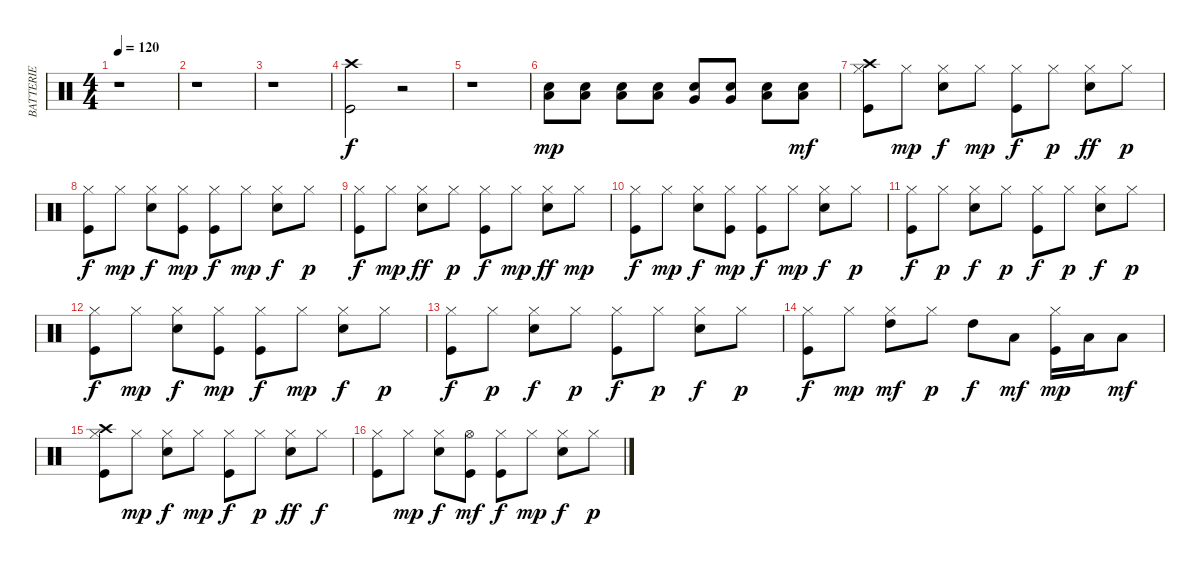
\track ("BATTERIE" "BATTERIE") {instrument percussion}
\staff {score}
\articulation defaults
\ts (4 4)
\tempo 120
\clef neutral
\ks c
r.1{dy mf} |
r.1 |
r.1 |
("Kick (hit)" "Crash high (hit)").2{dy f} r.2 |
r.1 |
("Low Tom (hit)" "Snare (hit) 2").8{dy mp volume 4} ("Snare (hit) 2" "Low Tom (hit)").8{volume 5} ("Snare (hit) 2" "Low Tom (hit)").8{volume 7} ("Snare (hit) 2" "Low Tom (hit)").8{volume 8} ("Snare (hit) 2" "Very Low Tom (hit)").8{volume 10} ("Snare (hit) 2" "Very Low Tom (hit)").8{volume 11} ("Snare (hit) 2" "Low Floor Tom (hit)").8{volume 13} ("Snare (hit) 2" "Low Floor Tom (hit)").8{dy mf volume 14} |
("Kick (hit)" "Hi-Hat (closed)" "Crash high (hit)").8{volume 16} "Hi-Hat (closed)".8{dy mp} ("Snare (hit) 2" "Hi-Hat (closed)").8{dy f} "Hi-Hat (closed)".8{dy mp} ("Kick (hit)" "Hi-Hat (closed)").8{dy f} "Hi-Hat (closed)".8{dy p} ("Snare (hit) 2" "Hi-Hat (closed)").8{dy ff} "Hi-Hat (closed)".8{dy p} |
("Kick (hit)" "Hi-Hat (closed)").8{dy f} "Hi-Hat (closed)".8{dy mp} ("Snare (hit) 2" "Hi-Hat (closed)").8{dy f} ("Kick (hit)" "Hi-Hat (closed)").8{dy mp} ("Kick (hit)" "Hi-Hat (closed)").8{dy f} "Hi-Hat (closed)".8{dy mp} ("Snare (hit) 2" "Hi-Hat (closed)").8{dy f} "Hi-Hat (closed)".8{dy p} |
("Kick (hit)" "Hi-Hat (closed)").8{dy f} "Hi-Hat (closed)".8{dy mp} ("Snare (hit) 2" "Hi-Hat (closed)").8{dy ff} "Hi-Hat (closed)".8{dy p} ("Kick (hit)" "Hi-Hat (closed)").8{dy f} "Hi-Hat (closed)".8{dy mp} ("Snare (hit) 2" "Hi-Hat (closed)").8{dy ff} "Hi-Hat (closed)".8{dy mp} |
("Kick (hit)" "Hi-Hat (closed)").8{dy f} "Hi-Hat (closed)".8{dy mp} ("Snare (hit) 2" "Hi-Hat (closed)").8{dy f} ("Kick (hit)" "Hi-Hat (closed)").8{dy mp} ("Kick (hit)" "Hi-Hat (closed)").8{dy f} "Hi-Hat (closed)".8{dy mp} ("Snare (hit) 2" "Hi-Hat (closed)").8{dy f} "Hi-Hat (closed)".8{dy p} |
("Kick (hit)" "Hi-Hat (closed)").8{dy f} "Hi-Hat (closed)".8{dy p} ("Snare (hit) 2" "Hi-Hat (closed)").8{dy f} "Hi-Hat (closed)".8{dy p} ("Kick (hit)" "Hi-Hat (closed)").8{dy f} "Hi-Hat (closed)".8{dy p} ("Snare (hit) 2" "Hi-Hat (closed)").8{dy f} "Hi-Hat (closed)".8{dy p} |
("Kick (hit)" "Hi-Hat (closed)").8{dy f} "Hi-Hat (closed)".8{dy mp} ("Snare (hit) 2" "Hi-Hat (closed)").8{dy f} ("Kick (hit)" "Hi-Hat (closed)").8{dy mp} ("Kick (hit)" "Hi-Hat (closed)").8{dy f} "Hi-Hat (closed)".8{dy mp} ("Snare (hit) 2" "Hi-Hat (closed)").8{dy f} "Hi-Hat (closed)".8{dy p} |
("Kick (hit)" "Hi-Hat (closed)").8{dy f} "Hi-Hat (closed)".8{dy p} ("Snare (hit) 2" "Hi-Hat (closed)").8{dy f} "Hi-Hat (closed)".8{dy p} ("Kick (hit)" "Hi-Hat (closed)").8{dy f} "Hi-Hat (closed)".8{dy p} ("Snare (hit) 2" "Hi-Hat (closed)").8{dy f} "Hi-Hat (closed)".8{dy p} |
("Kick (hit)" "Hi-Hat (closed)").8{dy f} "Hi-Hat (closed)".8{dy mp} ("Hi-Hat (closed)" "High Tom (hit)").8{dy mf} "Hi-Hat (closed)".8{dy p} "High Tom (hit)".8{dy f} "Low Tom (hit)".8{dy mf} ("Kick (hit)" "Hi-Hat (closed)").16{dy mp} "Low Tom (hit)".16 "Low Floor Tom (hit)".8{dy mf} |
("Kick (hit)" "Hi-Hat (closed)" "Crash high (hit)").8 "Hi-Hat (closed)".8{dy mp} ("Snare (hit) 2" "Hi-Hat (closed)").8{dy f} "Hi-Hat (closed)".8{dy mp} ("Kick (hit)" "Hi-Hat (closed)").8{dy f} "Hi-Hat (closed)".8{dy p} ("Snare (hit) 2" "Hi-Hat (closed)").8{dy ff} "Hi-Hat (closed)".8{dy f} |
("Kick (hit)" "Hi-Hat (closed)").8 "Hi-Hat (closed)".8{dy mp} ("Snare (hit) 2" "Hi-Hat (closed)").8{dy f} ("Kick (hit)" "Hi-Hat (open)").8{dy mf} ("Kick (hit)" "Hi-Hat (closed)").8{dy f} "Hi-Hat (closed)".8{dy mp} ("Snare (hit) 2" "Hi-Hat (closed)").8{dy f} "Hi-Hat (closed)".8{dy p}
